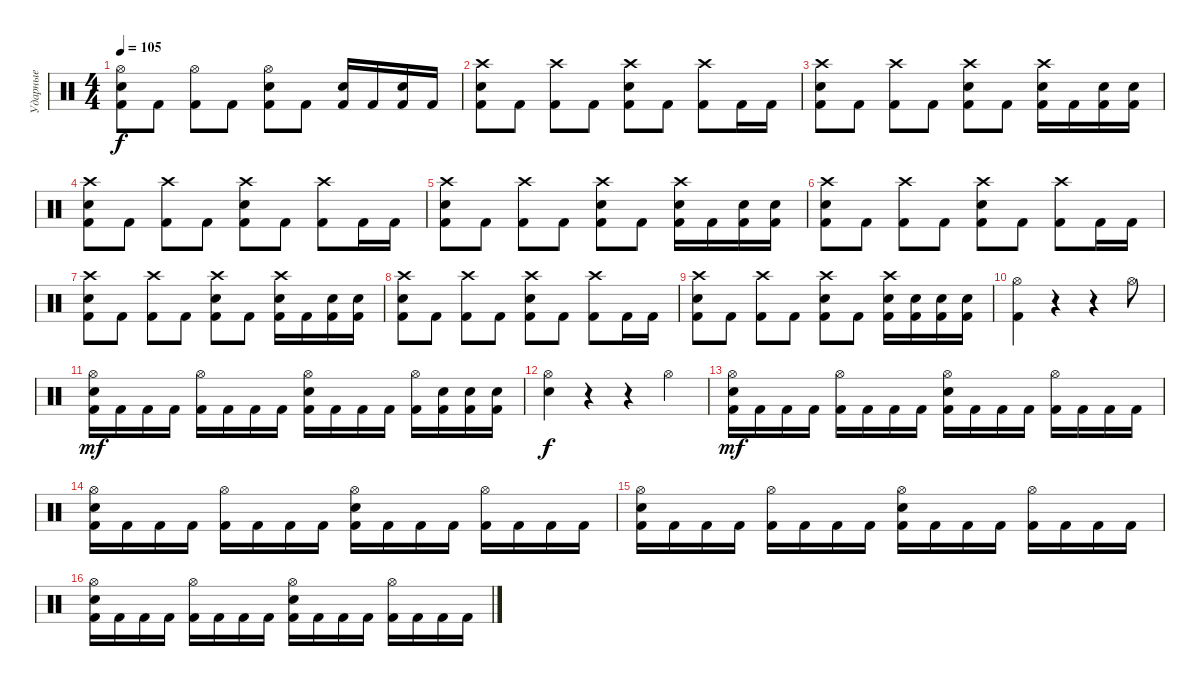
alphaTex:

\track ("Ударные" "Ударные") {instrument percussion}
\staff {score}
\articulation defaults
\ts (4 4)
\tempo 105
\clef neutral
\ks c
("Hi-Hat (open)" "Electric Snare (hit)" "Kick (hit) 2").8{dy f} "Kick (hit) 2".8 ("Hi-Hat (open)" "Kick (hit) 2").8 "Kick (hit) 2".8 ("Hi-Hat (open)" "Electric Snare (hit)" "Kick (hit) 2").8 "Kick (hit) 2".8 ("Electric Snare (hit)" "Kick (hit) 2").16 "Kick (hit) 2".16 ("Electric Snare (hit)" "Kick (hit) 2").16 "Kick (hit) 2".16 |
("Crash high (hit)" "Electric Snare (hit)" "Kick (hit) 2").8 "Kick (hit) 2".8 ("Crash high (hit)" "Kick (hit) 2").8 "Kick (hit) 2".8 ("Crash high (hit)" "Electric Snare (hit)" "Kick (hit) 2").8 "Kick (hit) 2".8 ("Crash high (hit)" "Kick (hit) 2").8 "Kick (hit) 2".16 "Kick (hit) 2".16 |
("Crash high (hit)" "Electric Snare (hit)" "Kick (hit) 2").8 "Kick (hit) 2".8 ("Crash high (hit)" "Kick (hit) 2").8 "Kick (hit) 2".8 ("Crash high (hit)" "Electric Snare (hit)" "Kick (hit) 2").8 "Kick (hit) 2".8 ("Crash high (hit)" "Electric Snare (hit)" "Kick (hit) 2").16 "Kick (hit) 2".16 ("Electric Snare (hit)" "Kick (hit) 2").16 ("Electric Snare (hit)" "Kick (hit) 2").16 |
("Crash high (hit)" "Electric Snare (hit)" "Kick (hit) 2").8 "Kick (hit) 2".8 ("Crash high (hit)" "Kick (hit) 2").8 "Kick (hit) 2".8 ("Crash high (hit)" "Electric Snare (hit)" "Kick (hit) 2").8 "Kick (hit) 2".8 ("Crash high (hit)" "Kick (hit) 2").8 "Kick (hit) 2".16 "Kick (hit) 2".16 |
("Crash high (hit)" "Electric Snare (hit)" "Kick (hit) 2").8 "Kick (hit) 2".8 ("Crash high (hit)" "Kick (hit) 2").8 "Kick (hit) 2".8 ("Crash high (hit)" "Electric Snare (hit)" "Kick (hit) 2").8 "Kick (hit) 2".8 ("Crash high (hit)" "Electric Snare (hit)" "Kick (hit) 2").16 "Kick (hit) 2".16 ("Electric Snare (hit)" "Kick (hit) 2").16 ("Electric Snare (hit)" "Kick (hit) 2").16 |
("Crash high (hit)" "Electric Snare (hit)" "Kick (hit) 2").8 "Kick (hit) 2".8 ("Crash high (hit)" "Kick (hit) 2").8 "Kick (hit) 2".8 ("Crash high (hit)" "Electric Snare (hit)" "Kick (hit) 2").8 "Kick (hit) 2".8 ("Crash high (hit)" "Kick (hit) 2").8 "Kick (hit) 2".16 "Kick (hit) 2".16 |
("Crash high (hit)" "Electric Snare (hit)" "Kick (hit) 2").8 "Kick (hit) 2".8 ("Crash high (hit)" "Kick (hit) 2").8 "Kick (hit) 2".8 ("Crash high (hit)" "Electric Snare (hit)" "Kick (hit) 2").8 "Kick (hit) 2".8 ("Crash high (hit)" "Electric Snare (hit)" "Kick (hit) 2").16 "Kick (hit) 2".16 ("Electric Snare (hit)" "Kick (hit) 2").16 ("Electric Snare (hit)" "Kick (hit) 2").16 |
("Crash high (hit)" "Electric Snare (hit)" "Kick (hit) 2").8 "Kick (hit) 2".8 ("Crash high (hit)" "Kick (hit) 2").8 "Kick (hit) 2".8 ("Crash high (hit)" "Electric Snare (hit)" "Kick (hit) 2").8 "Kick (hit) 2".8 ("Crash high (hit)" "Kick (hit) 2").8 "Kick (hit) 2".16 "Kick (hit) 2".16 |
("Crash high (hit)" "Electric Snare (hit)" "Kick (hit) 2").8 "Kick (hit) 2".8 ("Crash high (hit)" "Kick (hit) 2").8 "Kick (hit) 2".8 ("Crash high (hit)" "Electric Snare (hit)" "Kick (hit) 2").8 "Kick (hit) 2".8 ("Crash high (hit)" "Electric Snare (hit)" "Kick (hit) 2").16 ("Electric Snare (hit)" "Kick (hit) 2").16 ("Electric Snare (hit)" "Kick (hit) 2").16 ("Electric Snare (hit)" "Kick (hit) 2").16 |
("Hi-Hat (open)" "Kick (hit) 2").4 r.4 r.4 "Hi-Hat (open)".8 |
("Hi-Hat (open)" "Electric Snare (hit)" "Kick (hit) 2").16{dy mf} "Kick (hit) 2".16 "Kick (hit) 2".16 "Kick (hit) 2".16 ("Hi-Hat (open)" "Kick (hit) 2").16 "Kick (hit) 2".16 "Kick (hit) 2".16 "Kick (hit) 2".16 ("Hi-Hat (open)" "Electric Snare (hit)" "Kick (hit) 2").16 "Kick (hit) 2".16 "Kick (hit) 2".16 "Kick (hit) 2".16 ("Hi-Hat (open)" "Kick (hit) 2").16 ("Electric Snare (hit)" "Kick (hit) 2").16 ("Electric Snare (hit)" "Kick (hit) 2").16 ("Electric Snare (hit)" "Kick (hit) 2").16 |
("Electric Snare (hit)" "Hi-Hat (open)").4{dy f} r.4 r.4 "Hi-Hat (open)".4 |
("Hi-Hat (open)" "Electric Snare (hit)" "Kick (hit) 2").16{dy mf} "Kick (hit) 2".16 "Kick (hit) 2".16 "Kick (hit) 2".16 ("Hi-Hat (open)" "Kick (hit) 2").16 "Kick (hit) 2".16 "Kick (hit) 2".16 "Kick (hit) 2".16 ("Hi-Hat (open)" "Electric Snare (hit)" "Kick (hit) 2").16 "Kick (hit) 2".16 "Kick (hit) 2".16 "Kick (hit) 2".16 ("Hi-Hat (open)" "Kick (hit) 2").16 "Kick (hit) 2".16 "Kick (hit) 2".16 "Kick (hit) 2".16 |
("Hi-Hat (open)" "Electric Snare (hit)" "Kick (hit) 2").16 "Kick (hit) 2".16 "Kick (hit) 2".16 "Kick (hit) 2".16 ("Hi-Hat (open)" "Kick (hit) 2").16 "Kick (hit) 2".16 "Kick (hit) 2".16 "Kick (hit) 2".16 ("Hi-Hat (open)" "Electric Snare (hit)" "Kick (hit) 2").16 "Kick (hit) 2".16 "Kick (hit) 2".16 "Kick (hit) 2".16 ("Hi-Hat (open)" "Kick (hit) 2").16 "Kick (hit) 2".16 "Kick (hit) 2".16 "Kick (hit) 2".16 |
("Hi-Hat (open)" "Electric Snare (hit)" "Kick (hit) 2").16 "Kick (hit) 2".16 "Kick (hit) 2".16 "Kick (hit) 2".16 ("Hi-Hat (open)" "Kick (hit) 2").16 "Kick (hit) 2".16 "Kick (hit) 2".16 "Kick (hit) 2".16 ("Hi-Hat (open)" "Electric Snare (hit)" "Kick (hit) 2").16 "Kick (hit) 2".16 "Kick (hit) 2".16 "Kick (hit) 2".16 ("Hi-Hat (open)" "Kick (hit) 2").16 "Kick (hit) 2".16 "Kick (hit) 2".16 "Kick (hit) 2".16 |
("Hi-Hat (open)" "Electric Snare (hit)" "Kick (hit) 2").16 "Kick (hit) 2".16 "Kick (hit) 2".16 "Kick (hit) 2".16 ("Hi-Hat (open)" "Kick (hit) 2").16 "Kick (hit) 2".16 "Kick (hit) 2".16 "Kick (hit) 2".16 ("Hi-Hat (open)" "Electric Snare (hit)" "Kick (hit) 2").16 "Kick (hit) 2".16 "Kick (hit) 2".16 "Kick (hit) 2".16 ("Hi-Hat (open)" "Kick (hit) 2").16 "Kick (hit) 2".16 "Kick (hit) 2".16 "Kick (hit) 2".16
